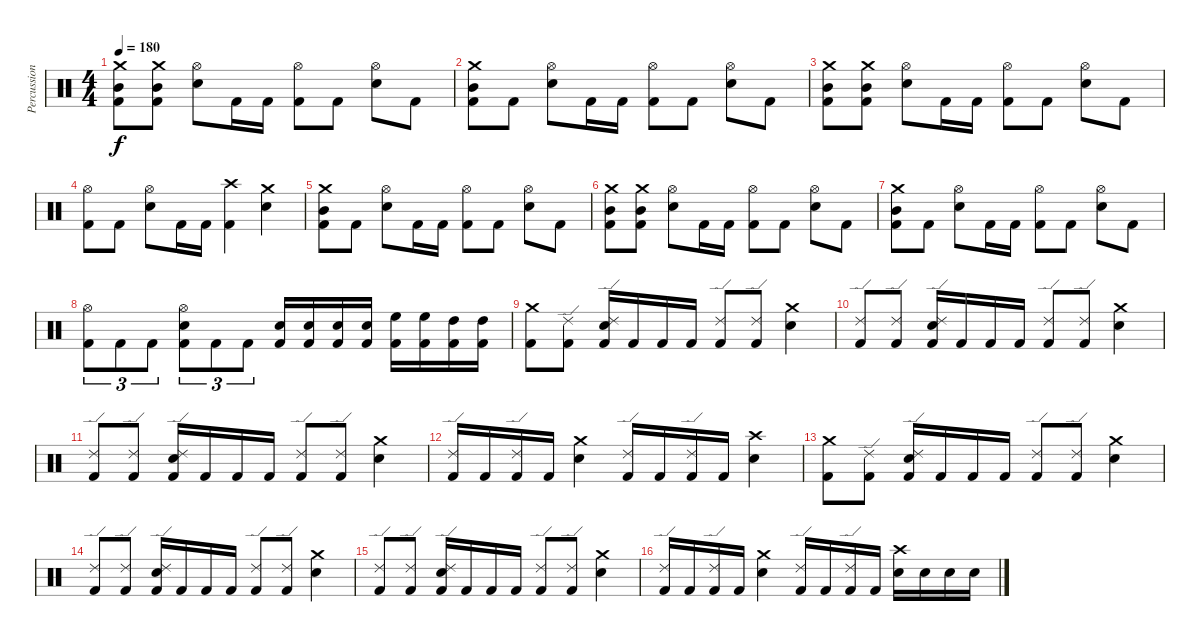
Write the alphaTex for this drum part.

\track ("Percussions" "Percussion") {instrument percussion}
\staff {score}
\articulation defaults
\ts (4 4)
\tempo 180
\clef neutral
\ks c
("Kick (hit) 2" "Mid Tom (hit)" "Crash medium (hit)").8{dy f} ("Kick (hit) 2" "Mid Tom (hit)" "Crash medium (hit)").8 ("Electric Snare (hit)" "Hi-Hat (open)").8 "Kick (hit) 2".16 "Kick (hit) 2".16 ("Kick (hit) 2" "Hi-Hat (open)").8 "Kick (hit) 2".8 ("Electric Snare (hit)" "Hi-Hat (open)").8 "Kick (hit) 2".8 |
("Kick (hit) 2" "Mid Tom (hit)" "Crash medium (hit)").8 "Kick (hit) 2".8 ("Electric Snare (hit)" "Hi-Hat (open)").8 "Kick (hit) 2".16 "Kick (hit) 2".16 ("Kick (hit) 2" "Hi-Hat (open)").8 "Kick (hit) 2".8 ("Electric Snare (hit)" "Hi-Hat (open)").8 "Kick (hit) 2".8 |
("Kick (hit) 2" "Mid Tom (hit)" "Crash medium (hit)").8 ("Kick (hit) 2" "Mid Tom (hit)" "Crash medium (hit)").8 ("Electric Snare (hit)" "Hi-Hat (open)").8 "Kick (hit) 2".16 "Kick (hit) 2".16 ("Kick (hit) 2" "Hi-Hat (open)").8 "Kick (hit) 2".8 ("Electric Snare (hit)" "Hi-Hat (open)").8 "Kick (hit) 2".8 |
("Kick (hit) 2" "Hi-Hat (open)").8 "Kick (hit) 2".8 ("Electric Snare (hit)" "Hi-Hat (open)").8 "Kick (hit) 2".16 "Kick (hit) 2".16 ("Kick (hit) 2" "Crash high (hit)").4 ("Electric Snare (hit)" "Crash medium (hit)").4 |
("Kick (hit) 2" "Mid Tom (hit)" "Crash medium (hit)").8 "Kick (hit) 2".8 ("Electric Snare (hit)" "Hi-Hat (open)").8 "Kick (hit) 2".16 "Kick (hit) 2".16 ("Kick (hit) 2" "Hi-Hat (open)").8 "Kick (hit) 2".8 ("Electric Snare (hit)" "Hi-Hat (open)").8 "Kick (hit) 2".8 |
("Kick (hit) 2" "Mid Tom (hit)" "Crash medium (hit)").8 ("Kick (hit) 2" "Mid Tom (hit)" "Crash medium (hit)").8 ("Electric Snare (hit)" "Hi-Hat (open)").8 "Kick (hit) 2".16 "Kick (hit) 2".16 ("Kick (hit) 2" "Hi-Hat (open)").8 "Kick (hit) 2".8 ("Electric Snare (hit)" "Hi-Hat (open)").8 "Kick (hit) 2".8 |
("Kick (hit) 2" "Mid Tom (hit)" "Crash medium (hit)").8 "Kick (hit) 2".8 ("Electric Snare (hit)" "Hi-Hat (open)").8 "Kick (hit) 2".16 "Kick (hit) 2".16 ("Kick (hit) 2" "Hi-Hat (open)").8 "Kick (hit) 2".8 ("Electric Snare (hit)" "Hi-Hat (open)").8 "Kick (hit) 2".8 |
("Kick (hit) 2" "Hi-Hat (open)").8{tu (3 2)} "Kick (hit) 2".8{tu (3 2)} "Kick (hit) 2".8{tu (3 2)} ("Kick (hit) 2" "Electric Snare (hit)" "Hi-Hat (open)").8{tu (3 2)} "Kick (hit) 2".8{tu (3 2)} "Kick (hit) 2".8{tu (3 2)} ("Kick (hit) 2" "Electric Snare (hit)").16 ("Kick (hit) 2" "Electric Snare (hit)").16 ("Kick (hit) 2" "Snare (hit) 2").16 ("Kick (hit) 2" "Snare (hit) 2").16 ("Kick (hit) 2" "High Floor Tom (hit)").16 ("Kick (hit) 2" "High Floor Tom (hit)").16 ("Kick (hit) 2" "High Tom (hit)").16 ("Kick (hit) 2" "High Tom (hit)").16 |
("Kick (hit) 2" "Crash medium (hit)").8 ("Kick (hit) 2" "Ride (edge) 2").8 ("Kick (hit) 2" "Electric Snare (hit)" "Ride (edge) 2").16 "Kick (hit) 2".16 "Kick (hit) 2".16 "Kick (hit) 2".16 ("Kick (hit) 2" "Ride (edge) 2").8 ("Kick (hit) 2" "Ride (edge) 2").8 ("Crash medium (hit)" "Electric Snare (hit)").4 |
("Kick (hit) 2" "Ride (edge) 2").8 ("Kick (hit) 2" "Ride (edge) 2").8 ("Kick (hit) 2" "Electric Snare (hit)" "Ride (edge) 2").16 "Kick (hit) 2".16 "Kick (hit) 2".16 "Kick (hit) 2".16 ("Kick (hit) 2" "Ride (edge) 2").8 ("Kick (hit) 2" "Ride (edge) 2").8 ("Crash medium (hit)" "Electric Snare (hit)").4 |
("Kick (hit) 2" "Ride (edge) 2").8 ("Kick (hit) 2" "Ride (edge) 2").8 ("Kick (hit) 2" "Electric Snare (hit)" "Ride (edge) 2").16 "Kick (hit) 2".16 "Kick (hit) 2".16 "Kick (hit) 2".16 ("Kick (hit) 2" "Ride (edge) 2").8 ("Kick (hit) 2" "Ride (edge) 2").8 ("Crash medium (hit)" "Electric Snare (hit)").4 |
("Kick (hit) 2" "Ride (edge) 2").16 "Kick (hit) 2".16 ("Kick (hit) 2" "Ride (edge) 2").16 "Kick (hit) 2".16 ("Crash medium (hit)" "Electric Snare (hit)").4 ("Kick (hit) 2" "Ride (edge) 2").16 "Kick (hit) 2".16 ("Kick (hit) 2" "Ride (edge) 2").16 "Kick (hit) 2".16 ("Crash high (hit)" "Electric Snare (hit)").4 |
("Kick (hit) 2" "Crash medium (hit)").8 ("Kick (hit) 2" "Ride (edge) 2").8 ("Kick (hit) 2" "Electric Snare (hit)" "Ride (edge) 2").16 "Kick (hit) 2".16 "Kick (hit) 2".16 "Kick (hit) 2".16 ("Kick (hit) 2" "Ride (edge) 2").8 ("Kick (hit) 2" "Ride (edge) 2").8 ("Crash medium (hit)" "Electric Snare (hit)").4 |
("Kick (hit) 2" "Ride (edge) 2").8 ("Kick (hit) 2" "Ride (edge) 2").8 ("Kick (hit) 2" "Electric Snare (hit)" "Ride (edge) 2").16 "Kick (hit) 2".16 "Kick (hit) 2".16 "Kick (hit) 2".16 ("Kick (hit) 2" "Ride (edge) 2").8 ("Kick (hit) 2" "Ride (edge) 2").8 ("Crash medium (hit)" "Electric Snare (hit)").4 |
("Kick (hit) 2" "Ride (edge) 2").8 ("Kick (hit) 2" "Ride (edge) 2").8 ("Kick (hit) 2" "Electric Snare (hit)" "Ride (edge) 2").16 "Kick (hit) 2".16 "Kick (hit) 2".16 "Kick (hit) 2".16 ("Kick (hit) 2" "Ride (edge) 2").8 ("Kick (hit) 2" "Ride (edge) 2").8 ("Crash medium (hit)" "Electric Snare (hit)").4 |
("Kick (hit) 2" "Ride (edge) 2").16 "Kick (hit) 2".16 ("Kick (hit) 2" "Ride (edge) 2").16 "Kick (hit) 2".16 ("Crash medium (hit)" "Electric Snare (hit)").4 ("Kick (hit) 2" "Ride (edge) 2").16 "Kick (hit) 2".16 ("Kick (hit) 2" "Ride (edge) 2").16 "Kick (hit) 2".16 ("Crash high (hit)" "Snare (hit) 2").16 "Snare (hit) 2".16 "Snare (hit) 2".16 "Snare (hit) 2".16
